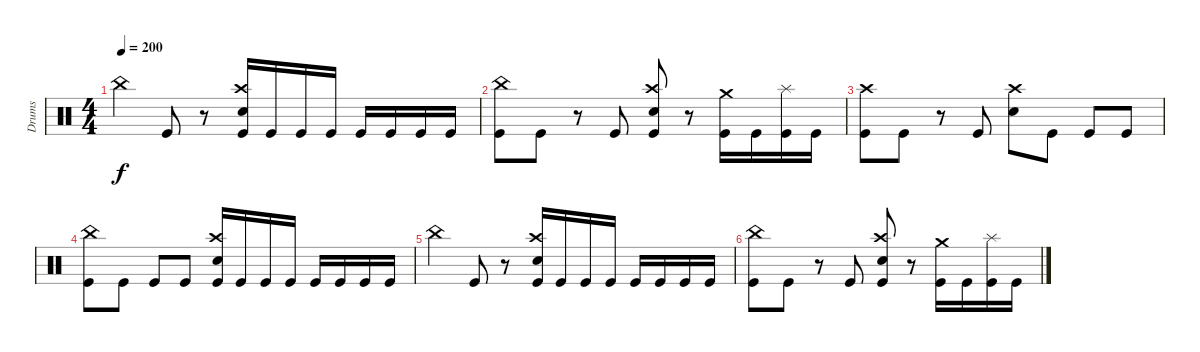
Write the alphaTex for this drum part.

\track ("Drums" "Drums") {instrument percussion}
\staff {score}
\articulation defaults
\ts (4 4)
\tempo 200
\clef neutral
\ks c "China (hit)".4{dy f} "Kick (hit)".8
r.8 ("Crash high (hit)" "Snare (hit) 2" "Kick (hit)").16 "Kick (hit)".16 "Kick (hit)".16 "Kick (hit)".16 "Kick (hit)".16 "Kick (hit)".16 "Kick (hit)".16 "Kick (hit)".16 |
("China (hit)" "Kick (hit)").8 "Kick (hit)".8 r.8 "Kick (hit)".8 ("Crash high (hit)" "Snare (hit) 2" "Kick (hit)").8 r.8 ("Crash medium (hit)" "Kick (hit)").16 "Kick (hit)".16 ("Splash (hit)" "Kick (hit)").16 "Kick (hit)".16 |
("Crash high (hit)" "Kick (hit)").8 "Kick (hit)".8 r.8 "Kick (hit)".8 ("Crash high (hit)" "Snare (hit) 2").8 "Kick (hit)".8 "Kick (hit)".8 "Kick (hit)".8 |
("China (hit)" "Kick (hit)").8 "Kick (hit)".8 "Kick (hit)".8 "Kick (hit)".8 ("Crash high (hit)" "Snare (hit) 2" "Kick (hit)").16 "Kick (hit)".16 "Kick (hit)".16 "Kick (hit)".16 "Kick (hit)".16 "Kick (hit)".16 "Kick (hit)".16 "Kick (hit)".16 |
"China (hit)".4 "Kick (hit)".8 r.8 ("Crash high (hit)" "Snare (hit) 2" "Kick (hit)").16 "Kick (hit)".16 "Kick (hit)".16 "Kick (hit)".16 "Kick (hit)".16 "Kick (hit)".16 "Kick (hit)".16 "Kick (hit)".16 |
("China (hit)" "Kick (hit)").8 "Kick (hit)".8 r.8 "Kick (hit)".8 ("Crash high (hit)" "Snare (hit) 2" "Kick (hit)").8 r.8 ("Crash medium (hit)" "Kick (hit)").16 "Kick (hit)".16 ("Splash (hit)" "Kick (hit)").16 "Kick (hit)".16
